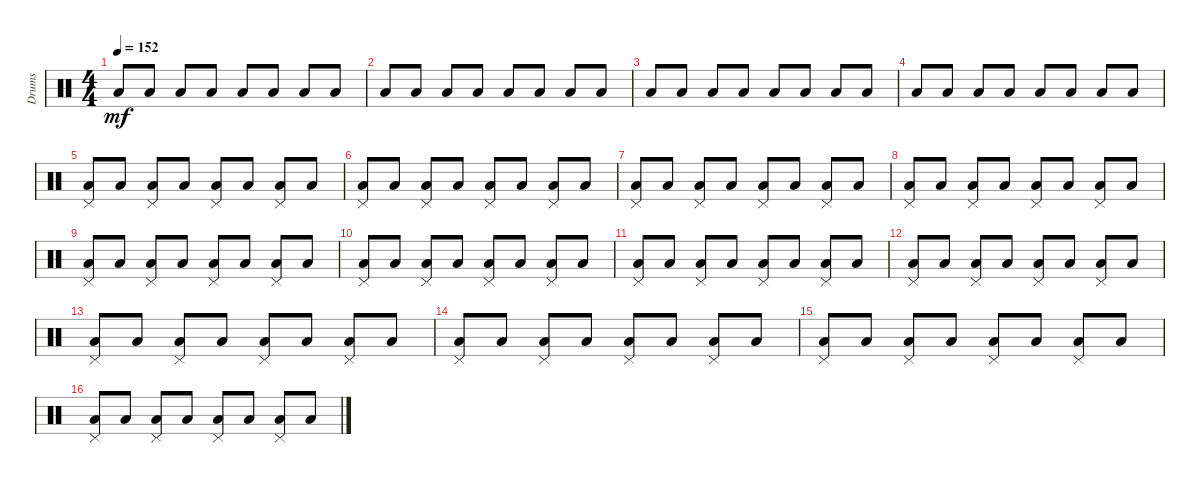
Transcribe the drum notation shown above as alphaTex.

\track ("Drums" "Drums") {instrument percussion}
\staff {score}
\articulation defaults
\ts (4 4)
\tempo 152
\clef neutral
\ks c "Low Floor Tom (hit)".8{dy mf} "Low Floor Tom (hit)".8 "Low Floor Tom (hit)".8 "Low Floor Tom (hit)".8 "Low Floor Tom (hit)".8 "Low Floor Tom (hit)".8 "Low Floor Tom (hit)".8 "Low Floor Tom (hit)".8
|
"Low Floor Tom (hit)".8 "Low Floor Tom (hit)".8 "Low Floor Tom (hit)".8 "Low Floor Tom (hit)".8 "Low Floor Tom (hit)".8 "Low Floor Tom (hit)".8 "Low Floor Tom (hit)".8 "Low Floor Tom (hit)".8 |
"Low Floor Tom (hit)".8 "Low Floor Tom (hit)".8 "Low Floor Tom (hit)".8 "Low Floor Tom (hit)".8 "Low Floor Tom (hit)".8 "Low Floor Tom (hit)".8 "Low Floor Tom (hit)".8 "Low Floor Tom (hit)".8 |
"Low Floor Tom (hit)".8 "Low Floor Tom (hit)".8 "Low Floor Tom (hit)".8 "Low Floor Tom (hit)".8 "Low Floor Tom (hit)".8 "Low Floor Tom (hit)".8 "Low Floor Tom (hit)".8 "Low Floor Tom (hit)".8 |
("Pedal Hi-Hat (hit)" "Low Floor Tom (hit)").8 "Low Floor Tom (hit)".8 ("Pedal Hi-Hat (hit)" "Low Floor Tom (hit)").8 "Low Floor Tom (hit)".8 ("Pedal Hi-Hat (hit)" "Low Floor Tom (hit)").8 "Low Floor Tom (hit)".8 ("Pedal Hi-Hat (hit)" "Low Floor Tom (hit)").8 "Low Floor Tom (hit)".8 |
("Pedal Hi-Hat (hit)" "Low Floor Tom (hit)").8 "Low Floor Tom (hit)".8 ("Pedal Hi-Hat (hit)" "Low Floor Tom (hit)").8 "Low Floor Tom (hit)".8 ("Pedal Hi-Hat (hit)" "Low Floor Tom (hit)").8 "Low Floor Tom (hit)".8 ("Pedal Hi-Hat (hit)" "Low Floor Tom (hit)").8 "Low Floor Tom (hit)".8 |
("Low Floor Tom (hit)" "Pedal Hi-Hat (hit)").8 "Low Floor Tom (hit)".8 ("Low Floor Tom (hit)" "Pedal Hi-Hat (hit)").8 "Low Floor Tom (hit)".8 ("Low Floor Tom (hit)" "Pedal Hi-Hat (hit)").8 "Low Floor Tom (hit)".8 ("Low Floor Tom (hit)" "Pedal Hi-Hat (hit)").8 "Low Floor Tom (hit)".8 |
("Low Floor Tom (hit)" "Pedal Hi-Hat (hit)").8 "Low Floor Tom (hit)".8 ("Low Floor Tom (hit)" "Pedal Hi-Hat (hit)").8 "Low Floor Tom (hit)".8 ("Low Floor Tom (hit)" "Pedal Hi-Hat (hit)").8 "Low Floor Tom (hit)".8 ("Low Floor Tom (hit)" "Pedal Hi-Hat (hit)").8 "Low Floor Tom (hit)".8 |
("Low Floor Tom (hit)" "Pedal Hi-Hat (hit)").8 "Low Floor Tom (hit)".8 ("Low Floor Tom (hit)" "Pedal Hi-Hat (hit)").8 "Low Floor Tom (hit)".8 ("Low Floor Tom (hit)" "Pedal Hi-Hat (hit)").8 "Low Floor Tom (hit)".8 ("Low Floor Tom (hit)" "Pedal Hi-Hat (hit)").8 "Low Floor Tom (hit)".8 |
("Low Floor Tom (hit)" "Pedal Hi-Hat (hit)").8 "Low Floor Tom (hit)".8 ("Low Floor Tom (hit)" "Pedal Hi-Hat (hit)").8 "Low Floor Tom (hit)".8 ("Low Floor Tom (hit)" "Pedal Hi-Hat (hit)").8 "Low Floor Tom (hit)".8 ("Low Floor Tom (hit)" "Pedal Hi-Hat (hit)").8 "Low Floor Tom (hit)".8 |
("Pedal Hi-Hat (hit)" "Low Floor Tom (hit)").8 "Low Floor Tom (hit)".8 ("Pedal Hi-Hat (hit)" "Low Floor Tom (hit)").8 "Low Floor Tom (hit)".8 ("Pedal Hi-Hat (hit)" "Low Floor Tom (hit)").8 "Low Floor Tom (hit)".8 ("Pedal Hi-Hat (hit)" "Low Floor Tom (hit)").8 "Low Floor Tom (hit)".8 |
("Pedal Hi-Hat (hit)" "Low Floor Tom (hit)").8 "Low Floor Tom (hit)".8 ("Pedal Hi-Hat (hit)" "Low Floor Tom (hit)").8 "Low Floor Tom (hit)".8 ("Pedal Hi-Hat (hit)" "Low Floor Tom (hit)").8 "Low Floor Tom (hit)".8 ("Pedal Hi-Hat (hit)" "Low Floor Tom (hit)").8 "Low Floor Tom (hit)".8 |
("Pedal Hi-Hat (hit)" "Low Floor Tom (hit)").8 "Low Floor Tom (hit)".8 ("Pedal Hi-Hat (hit)" "Low Floor Tom (hit)").8 "Low Floor Tom (hit)".8 ("Pedal Hi-Hat (hit)" "Low Floor Tom (hit)").8 "Low Floor Tom (hit)".8 ("Pedal Hi-Hat (hit)" "Low Floor Tom (hit)").8 "Low Floor Tom (hit)".8 |
("Pedal Hi-Hat (hit)" "Low Floor Tom (hit)").8 "Low Floor Tom (hit)".8 ("Pedal Hi-Hat (hit)" "Low Floor Tom (hit)").8 "Low Floor Tom (hit)".8 ("Pedal Hi-Hat (hit)" "Low Floor Tom (hit)").8 "Low Floor Tom (hit)".8 ("Pedal Hi-Hat (hit)" "Low Floor Tom (hit)").8 "Low Floor Tom (hit)".8 |
("Low Floor Tom (hit)" "Pedal Hi-Hat (hit)").8 "Low Floor Tom (hit)".8 ("Low Floor Tom (hit)" "Pedal Hi-Hat (hit)").8 "Low Floor Tom (hit)".8 ("Low Floor Tom (hit)" "Pedal Hi-Hat (hit)").8 "Low Floor Tom (hit)".8 ("Low Floor Tom (hit)" "Pedal Hi-Hat (hit)").8 "Low Floor Tom (hit)".8 |
("Low Floor Tom (hit)" "Pedal Hi-Hat (hit)").8 "Low Floor Tom (hit)".8 ("Low Floor Tom (hit)" "Pedal Hi-Hat (hit)").8 "Low Floor Tom (hit)".8 ("Low Floor Tom (hit)" "Pedal Hi-Hat (hit)").8 "Low Floor Tom (hit)".8 ("Low Floor Tom (hit)" "Pedal Hi-Hat (hit)").8 "Low Floor Tom (hit)".8
